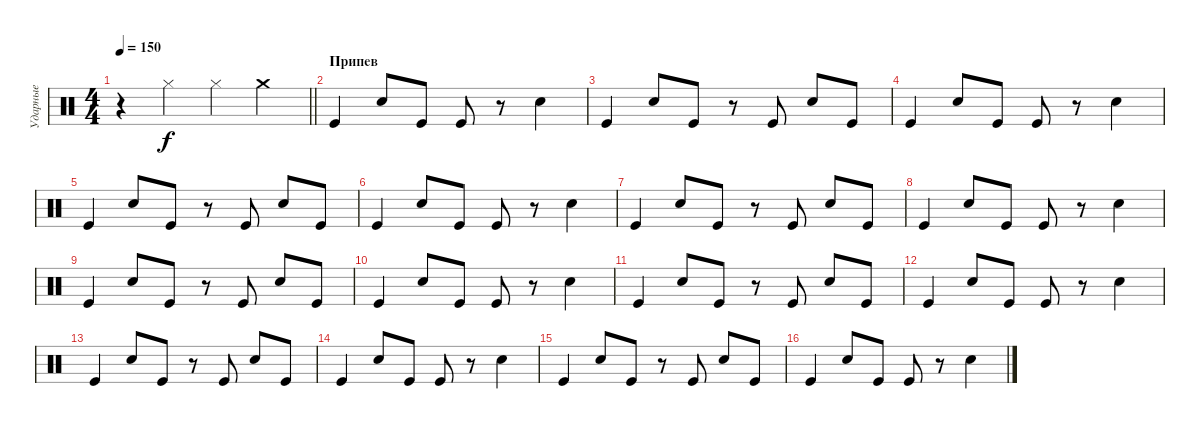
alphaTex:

\track ("Ударные" "Ударные") {instrument percussion}
\staff {score}
\articulation defaults
\ts (4 4)
\tempo 150
\clef neutral
\barLineRight lightlight
\ks c
r.4{dy f} "Hi-Hat (closed)".4 "Hi-Hat (closed)".4 "Crash medium (hit)".4 |
\section ("" "Припев")
"Kick (hit)".4 "Snare (hit) 2".8 "Kick (hit)".8 "Kick (hit)".8 r.8 "Snare (hit) 2".4 |
"Kick (hit)".4 "Snare (hit) 2".8 "Kick (hit)".8 r.8 "Kick (hit)".8 "Snare (hit) 2".8 "Kick (hit)".8 |
"Kick (hit)".4 "Snare (hit) 2".8 "Kick (hit)".8 "Kick (hit)".8 r.8 "Snare (hit) 2".4 |
"Kick (hit)".4 "Snare (hit) 2".8 "Kick (hit)".8 r.8 "Kick (hit)".8 "Snare (hit) 2".8 "Kick (hit)".8 |
"Kick (hit)".4 "Snare (hit) 2".8 "Kick (hit)".8 "Kick (hit)".8 r.8 "Snare (hit) 2".4 |
"Kick (hit)".4 "Snare (hit) 2".8 "Kick (hit)".8 r.8 "Kick (hit)".8 "Snare (hit) 2".8 "Kick (hit)".8 |
"Kick (hit)".4 "Snare (hit) 2".8 "Kick (hit)".8 "Kick (hit)".8 r.8 "Snare (hit) 2".4 |
"Kick (hit)".4 "Snare (hit) 2".8 "Kick (hit)".8 r.8 "Kick (hit)".8 "Snare (hit) 2".8 "Kick (hit)".8 |
"Kick (hit)".4 "Snare (hit) 2".8 "Kick (hit)".8 "Kick (hit)".8 r.8 "Snare (hit) 2".4 |
"Kick (hit)".4 "Snare (hit) 2".8 "Kick (hit)".8 r.8 "Kick (hit)".8 "Snare (hit) 2".8 "Kick (hit)".8 |
"Kick (hit)".4 "Snare (hit) 2".8 "Kick (hit)".8 "Kick (hit)".8 r.8 "Snare (hit) 2".4 |
"Kick (hit)".4 "Snare (hit) 2".8 "Kick (hit)".8 r.8 "Kick (hit)".8 "Snare (hit) 2".8 "Kick (hit)".8 |
"Kick (hit)".4 "Snare (hit) 2".8 "Kick (hit)".8 "Kick (hit)".8 r.8 "Snare (hit) 2".4 |
"Kick (hit)".4 "Snare (hit) 2".8 "Kick (hit)".8 r.8 "Kick (hit)".8 "Snare (hit) 2".8 "Kick (hit)".8 |
"Kick (hit)".4 "Snare (hit) 2".8 "Kick (hit)".8 "Kick (hit)".8 r.8 "Snare (hit) 2".4
